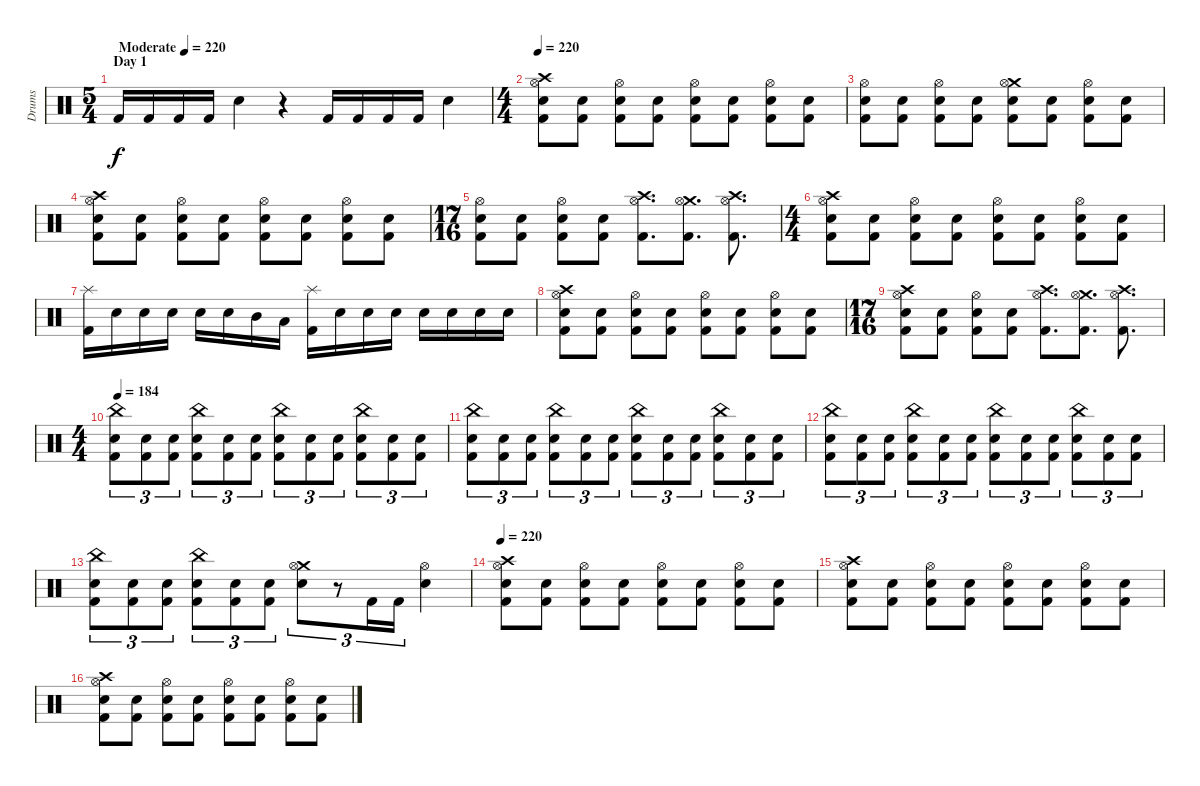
\track ("Drums" "Drums") {instrument percussion}
\staff {score}
\articulation defaults
\ts (5 4)
\section ("" "Day 1")
\tempo (220 "Moderate")
\tempo 90
\tempo 200
\tempo (220 "Moderate")
\clef neutral
\ks c "Kick (hit) 2".16{dy f} "Kick (hit) 2".16 "Kick (hit) 2".16 "Kick (hit) 2".16 "Snare (hit) 2".4
r.4 "Kick (hit) 2".16 "Kick (hit) 2".16 "Kick (hit) 2".16 "Kick (hit) 2".16 "Snare (hit) 2".4 |
\ts (4 4)
\tempo 220
("Crash high (hit)" "Hi-Hat (open)" "Snare (hit) 2" "Kick (hit) 2").8 ("Snare (hit) 2" "Kick (hit) 2").8 ("Hi-Hat (open)" "Snare (hit) 2" "Kick (hit) 2").8 ("Snare (hit) 2" "Kick (hit) 2").8 ("Hi-Hat (open)" "Snare (hit) 2" "Kick (hit) 2").8 ("Snare (hit) 2" "Kick (hit) 2").8 ("Hi-Hat (open)" "Snare (hit) 2" "Kick (hit) 2").8 ("Snare (hit) 2" "Kick (hit) 2").8 |
("Hi-Hat (open)" "Snare (hit) 2" "Kick (hit) 2").8 ("Snare (hit) 2" "Kick (hit) 2").8 ("Hi-Hat (open)" "Snare (hit) 2" "Kick (hit) 2").8 ("Snare (hit) 2" "Kick (hit) 2").8 ("Crash medium (hit)" "Hi-Hat (open)" "Snare (hit) 2" "Kick (hit) 2").8 ("Snare (hit) 2" "Kick (hit) 2").8 ("Hi-Hat (open)" "Snare (hit) 2" "Kick (hit) 2").8 ("Snare (hit) 2" "Kick (hit) 2").8 |
("Crash high (hit)" "Hi-Hat (open)" "Snare (hit) 2" "Kick (hit) 2").8 ("Snare (hit) 2" "Kick (hit) 2").8 ("Hi-Hat (open)" "Snare (hit) 2" "Kick (hit) 2").8 ("Snare (hit) 2" "Kick (hit) 2").8 ("Hi-Hat (open)" "Snare (hit) 2" "Kick (hit) 2").8 ("Snare (hit) 2" "Kick (hit) 2").8 ("Hi-Hat (open)" "Snare (hit) 2" "Kick (hit) 2").8 ("Snare (hit) 2" "Kick (hit) 2").8 |
\ts (17 16)
("Hi-Hat (open)" "Snare (hit) 2" "Kick (hit) 2").8 ("Snare (hit) 2" "Kick (hit) 2").8 ("Hi-Hat (open)" "Snare (hit) 2" "Kick (hit) 2").8 ("Snare (hit) 2" "Kick (hit) 2").8 ("Crash high (hit)" "Hi-Hat (open)" "Kick (hit) 2").8{d} ("Crash medium (hit)" "Hi-Hat (open)" "Kick (hit) 2").8{d} ("Crash high (hit)" "Hi-Hat (open)" "Kick (hit) 2").8{d} |
\ts (4 4)
("Crash high (hit)" "Hi-Hat (open)" "Snare (hit) 2" "Kick (hit) 2").8 ("Snare (hit) 2" "Kick (hit) 2").8 ("Hi-Hat (open)" "Snare (hit) 2" "Kick (hit) 2").8 ("Snare (hit) 2" "Kick (hit) 2").8 ("Hi-Hat (open)" "Snare (hit) 2" "Kick (hit) 2").8 ("Snare (hit) 2" "Kick (hit) 2").8 ("Hi-Hat (open)" "Snare (hit) 2" "Kick (hit) 2").8 ("Snare (hit) 2" "Kick (hit) 2").8 |
("Splash (hit)" "Kick (hit) 2").16 "Snare (hit) 2".16 "Snare (hit) 2".16 "Snare (hit) 2".16 "Snare (hit) 2".16 "Snare (hit) 2".16 "Mid Tom (hit)".16 "Low Tom (hit)".16 ("Splash (hit)" "Kick (hit) 2").16 "Snare (hit) 2".16 "Snare (hit) 2".16 "Snare (hit) 2".16 "Snare (hit) 2".16 "Snare (hit) 2".16 "Snare (hit) 2".16 "Snare (hit) 2".16 |
("Crash high (hit)" "Hi-Hat (open)" "Snare (hit) 2" "Kick (hit) 2").8 ("Snare (hit) 2" "Kick (hit) 2").8 ("Hi-Hat (open)" "Snare (hit) 2" "Kick (hit) 2").8 ("Snare (hit) 2" "Kick (hit) 2").8 ("Hi-Hat (open)" "Snare (hit) 2" "Kick (hit) 2").8 ("Snare (hit) 2" "Kick (hit) 2").8 ("Hi-Hat (open)" "Snare (hit) 2" "Kick (hit) 2").8 ("Snare (hit) 2" "Kick (hit) 2").8 |
\ts (17 16)
("Crash high (hit)" "Hi-Hat (open)" "Snare (hit) 2" "Kick (hit) 2").8 ("Snare (hit) 2" "Kick (hit) 2").8 ("Hi-Hat (open)" "Snare (hit) 2" "Kick (hit) 2").8 ("Snare (hit) 2" "Kick (hit) 2").8 ("Crash high (hit)" "Hi-Hat (open)" "Kick (hit) 2").8{d} ("Crash medium (hit)" "Hi-Hat (open)" "Kick (hit) 2").8{d} ("Crash high (hit)" "Hi-Hat (open)" "Kick (hit) 2").8{d} |
\ts (4 4)
\tempo 184
("China (hit)" "Snare (hit) 2" "Kick (hit) 2").8{tu (3 2)} ("Snare (hit) 2" "Kick (hit) 2").8{tu (3 2)} ("Snare (hit) 2" "Kick (hit) 2").8{tu (3 2)} ("China (hit)" "Snare (hit) 2" "Kick (hit) 2").8{tu (3 2)} ("Snare (hit) 2" "Kick (hit) 2").8{tu (3 2)} ("Snare (hit) 2" "Kick (hit) 2").8{tu (3 2)} ("China (hit)" "Snare (hit) 2" "Kick (hit) 2").8{tu (3 2)} ("Snare (hit) 2" "Kick (hit) 2").8{tu (3 2)} ("Snare (hit) 2" "Kick (hit) 2").8{tu (3 2)} ("China (hit)" "Snare (hit) 2" "Kick (hit) 2").8{tu (3 2)} ("Snare (hit) 2" "Kick (hit) 2").8{tu (3 2)} ("Snare (hit) 2" "Kick (hit) 2").8{tu (3 2)} |
("China (hit)" "Snare (hit) 2" "Kick (hit) 2").8{tu (3 2)} ("Snare (hit) 2" "Kick (hit) 2").8{tu (3 2)} ("Snare (hit) 2" "Kick (hit) 2").8{tu (3 2)} ("China (hit)" "Snare (hit) 2" "Kick (hit) 2").8{tu (3 2)} ("Snare (hit) 2" "Kick (hit) 2").8{tu (3 2)} ("Snare (hit) 2" "Kick (hit) 2").8{tu (3 2)} ("China (hit)" "Snare (hit) 2" "Kick (hit) 2").8{tu (3 2)} ("Snare (hit) 2" "Kick (hit) 2").8{tu (3 2)} ("Snare (hit) 2" "Kick (hit) 2").8{tu (3 2)} ("China (hit)" "Snare (hit) 2" "Kick (hit) 2").8{tu (3 2)} ("Snare (hit) 2" "Kick (hit) 2").8{tu (3 2)} ("Snare (hit) 2" "Kick (hit) 2").8{tu (3 2)} |
("China (hit)" "Snare (hit) 2" "Kick (hit) 2").8{tu (3 2)} ("Snare (hit) 2" "Kick (hit) 2").8{tu (3 2)} ("Snare (hit) 2" "Kick (hit) 2").8{tu (3 2)} ("China (hit)" "Snare (hit) 2" "Kick (hit) 2").8{tu (3 2)} ("Snare (hit) 2" "Kick (hit) 2").8{tu (3 2)} ("Snare (hit) 2" "Kick (hit) 2").8{tu (3 2)} ("China (hit)" "Snare (hit) 2" "Kick (hit) 2").8{tu (3 2)} ("Snare (hit) 2" "Kick (hit) 2").8{tu (3 2)} ("Snare (hit) 2" "Kick (hit) 2").8{tu (3 2)} ("China (hit)" "Snare (hit) 2" "Kick (hit) 2").8{tu (3 2)} ("Snare (hit) 2" "Kick (hit) 2").8{tu (3 2)} ("Snare (hit) 2" "Kick (hit) 2").8{tu (3 2)} |
("China (hit)" "Snare (hit) 2" "Kick (hit) 2").8{tu (3 2)} ("Snare (hit) 2" "Kick (hit) 2").8{tu (3 2)} ("Snare (hit) 2" "Kick (hit) 2").8{tu (3 2)} ("China (hit)" "Snare (hit) 2" "Kick (hit) 2").8{tu (3 2)} ("Snare (hit) 2" "Kick (hit) 2").8{tu (3 2)} ("Snare (hit) 2" "Kick (hit) 2").8{tu (3 2)} ("Crash medium (hit)" "Hi-Hat (open)" "Snare (hit) 2").8{tu (3 2)} r.8{tu (3 2)} "Kick (hit) 2".16{tu (3 2)} "Kick (hit) 2".16{tu (3 2)} ("Hi-Hat (open)" "Snare (hit) 2").4 |
\tempo 110
\tempo 220
("Crash high (hit)" "Hi-Hat (open)" "Snare (hit) 2" "Kick (hit) 2").8 ("Snare (hit) 2" "Kick (hit) 2").8 ("Hi-Hat (open)" "Snare (hit) 2" "Kick (hit) 2").8 ("Snare (hit) 2" "Kick (hit) 2").8 ("Hi-Hat (open)" "Snare (hit) 2" "Kick (hit) 2").8 ("Snare (hit) 2" "Kick (hit) 2").8 ("Hi-Hat (open)" "Snare (hit) 2" "Kick (hit) 2").8 ("Snare (hit) 2" "Kick (hit) 2").8 |
("Crash high (hit)" "Hi-Hat (open)" "Snare (hit) 2" "Kick (hit) 2").8 ("Snare (hit) 2" "Kick (hit) 2").8 ("Hi-Hat (open)" "Snare (hit) 2" "Kick (hit) 2").8 ("Snare (hit) 2" "Kick (hit) 2").8 ("Hi-Hat (open)" "Snare (hit) 2" "Kick (hit) 2").8 ("Snare (hit) 2" "Kick (hit) 2").8 ("Hi-Hat (open)" "Snare (hit) 2" "Kick (hit) 2").8 ("Snare (hit) 2" "Kick (hit) 2").8 |
("Crash high (hit)" "Hi-Hat (open)" "Snare (hit) 2" "Kick (hit) 2").8 ("Snare (hit) 2" "Kick (hit) 2").8 ("Hi-Hat (open)" "Snare (hit) 2" "Kick (hit) 2").8 ("Snare (hit) 2" "Kick (hit) 2").8 ("Hi-Hat (open)" "Snare (hit) 2" "Kick (hit) 2").8 ("Snare (hit) 2" "Kick (hit) 2").8 ("Hi-Hat (open)" "Snare (hit) 2" "Kick (hit) 2").8 ("Snare (hit) 2" "Kick (hit) 2").8
